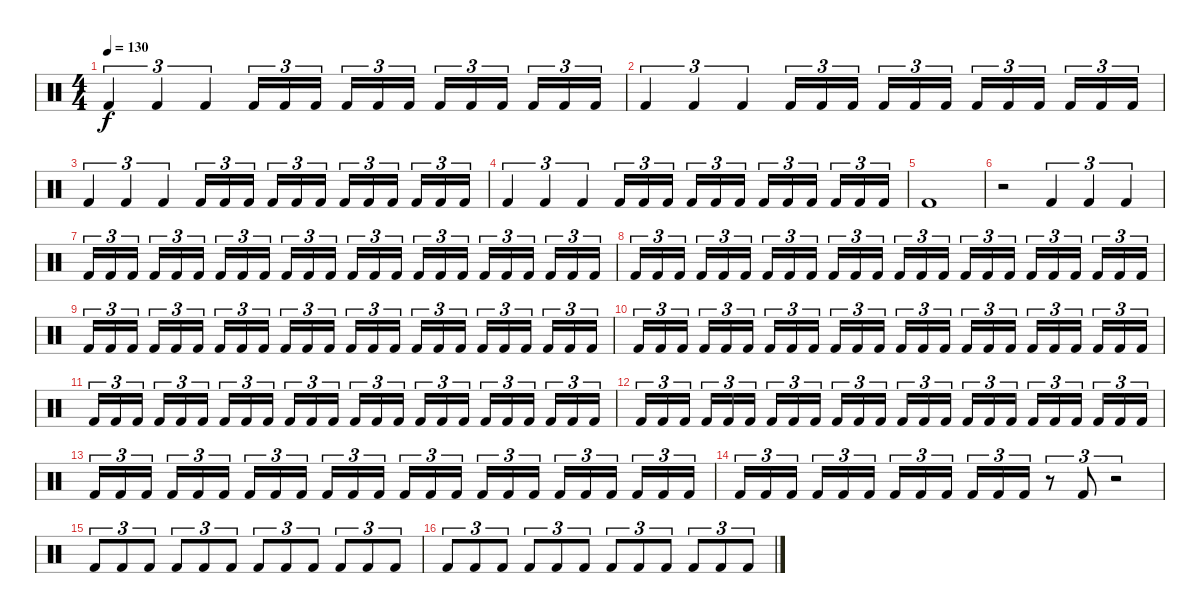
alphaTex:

\track "" {instrument percussion}
\staff {score}
\articulation defaults
\ts (4 4)
\tempo 130
\clef neutral
\ks c "Kick (hit) 2".4{tu (3 2) dy f} "Kick (hit) 2".4{tu (3 2)} "Kick (hit) 2".4{tu (3 2)} "Kick (hit) 2".16{tu (3 2)} "Kick (hit) 2".16{tu (3 2)} "Kick (hit) 2".16{tu (3 2)} "Kick (hit) 2".16{tu (3 2)} "Kick (hit) 2".16{tu (3 2)} "Kick (hit) 2".16{tu (3 2)} "Kick (hit) 2".16{tu (3 2)} "Kick (hit) 2".16{tu (3 2)} "Kick (hit) 2".16{tu (3 2)} "Kick (hit) 2".16{tu (3 2)} "Kick (hit) 2".16{tu (3 2)} "Kick (hit) 2".16{tu (3 2)}
|
"Kick (hit) 2".4{tu (3 2)} "Kick (hit) 2".4{tu (3 2)} "Kick (hit) 2".4{tu (3 2)} "Kick (hit) 2".16{tu (3 2)} "Kick (hit) 2".16{tu (3 2)} "Kick (hit) 2".16{tu (3 2)} "Kick (hit) 2".16{tu (3 2)} "Kick (hit) 2".16{tu (3 2)} "Kick (hit) 2".16{tu (3 2)} "Kick (hit) 2".16{tu (3 2)} "Kick (hit) 2".16{tu (3 2)} "Kick (hit) 2".16{tu (3 2)} "Kick (hit) 2".16{tu (3 2)} "Kick (hit) 2".16{tu (3 2)} "Kick (hit) 2".16{tu (3 2)} |
"Kick (hit) 2".4{tu (3 2)} "Kick (hit) 2".4{tu (3 2)} "Kick (hit) 2".4{tu (3 2)} "Kick (hit) 2".16{tu (3 2)} "Kick (hit) 2".16{tu (3 2)} "Kick (hit) 2".16{tu (3 2)} "Kick (hit) 2".16{tu (3 2)} "Kick (hit) 2".16{tu (3 2)} "Kick (hit) 2".16{tu (3 2)} "Kick (hit) 2".16{tu (3 2)} "Kick (hit) 2".16{tu (3 2)} "Kick (hit) 2".16{tu (3 2)} "Kick (hit) 2".16{tu (3 2)} "Kick (hit) 2".16{tu (3 2)} "Kick (hit) 2".16{tu (3 2)} |
"Kick (hit) 2".4{tu (3 2)} "Kick (hit) 2".4{tu (3 2)} "Kick (hit) 2".4{tu (3 2)} "Kick (hit) 2".16{tu (3 2)} "Kick (hit) 2".16{tu (3 2)} "Kick (hit) 2".16{tu (3 2)} "Kick (hit) 2".16{tu (3 2)} "Kick (hit) 2".16{tu (3 2)} "Kick (hit) 2".16{tu (3 2)} "Kick (hit) 2".16{tu (3 2)} "Kick (hit) 2".16{tu (3 2)} "Kick (hit) 2".16{tu (3 2)} "Kick (hit) 2".16{tu (3 2)} "Kick (hit) 2".16{tu (3 2)} "Kick (hit) 2".16{tu (3 2)} |
"Kick (hit) 2".1 |
r.2 "Kick (hit) 2".4{tu (3 2)} "Kick (hit) 2".4{tu (3 2)} "Kick (hit) 2".4{tu (3 2)} |
"Kick (hit) 2".16{tu (3 2)} "Kick (hit) 2".16{tu (3 2)} "Kick (hit) 2".16{tu (3 2)} "Kick (hit) 2".16{tu (3 2)} "Kick (hit) 2".16{tu (3 2)} "Kick (hit) 2".16{tu (3 2)} "Kick (hit) 2".16{tu (3 2)} "Kick (hit) 2".16{tu (3 2)} "Kick (hit) 2".16{tu (3 2)} "Kick (hit) 2".16{tu (3 2)} "Kick (hit) 2".16{tu (3 2)} "Kick (hit) 2".16{tu (3 2)} "Kick (hit) 2".16{tu (3 2)} "Kick (hit) 2".16{tu (3 2)} "Kick (hit) 2".16{tu (3 2)} "Kick (hit) 2".16{tu (3 2)} "Kick (hit) 2".16{tu (3 2)} "Kick (hit) 2".16{tu (3 2)} "Kick (hit) 2".16{tu (3 2)} "Kick (hit) 2".16{tu (3 2)} "Kick (hit) 2".16{tu (3 2)} "Kick (hit) 2".16{tu (3 2)} "Kick (hit) 2".16{tu (3 2)} "Kick (hit) 2".16{tu (3 2)} |
"Kick (hit) 2".16{tu (3 2)} "Kick (hit) 2".16{tu (3 2)} "Kick (hit) 2".16{tu (3 2)} "Kick (hit) 2".16{tu (3 2)} "Kick (hit) 2".16{tu (3 2)} "Kick (hit) 2".16{tu (3 2)} "Kick (hit) 2".16{tu (3 2)} "Kick (hit) 2".16{tu (3 2)} "Kick (hit) 2".16{tu (3 2)} "Kick (hit) 2".16{tu (3 2)} "Kick (hit) 2".16{tu (3 2)} "Kick (hit) 2".16{tu (3 2)} "Kick (hit) 2".16{tu (3 2)} "Kick (hit) 2".16{tu (3 2)} "Kick (hit) 2".16{tu (3 2)} "Kick (hit) 2".16{tu (3 2)} "Kick (hit) 2".16{tu (3 2)} "Kick (hit) 2".16{tu (3 2)} "Kick (hit) 2".16{tu (3 2)} "Kick (hit) 2".16{tu (3 2)} "Kick (hit) 2".16{tu (3 2)} "Kick (hit) 2".16{tu (3 2)} "Kick (hit) 2".16{tu (3 2)} "Kick (hit) 2".16{tu (3 2)} |
"Kick (hit) 2".16{tu (3 2)} "Kick (hit) 2".16{tu (3 2)} "Kick (hit) 2".16{tu (3 2)} "Kick (hit) 2".16{tu (3 2)} "Kick (hit) 2".16{tu (3 2)} "Kick (hit) 2".16{tu (3 2)} "Kick (hit) 2".16{tu (3 2)} "Kick (hit) 2".16{tu (3 2)} "Kick (hit) 2".16{tu (3 2)} "Kick (hit) 2".16{tu (3 2)} "Kick (hit) 2".16{tu (3 2)} "Kick (hit) 2".16{tu (3 2)} "Kick (hit) 2".16{tu (3 2)} "Kick (hit) 2".16{tu (3 2)} "Kick (hit) 2".16{tu (3 2)} "Kick (hit) 2".16{tu (3 2)} "Kick (hit) 2".16{tu (3 2)} "Kick (hit) 2".16{tu (3 2)} "Kick (hit) 2".16{tu (3 2)} "Kick (hit) 2".16{tu (3 2)} "Kick (hit) 2".16{tu (3 2)} "Kick (hit) 2".16{tu (3 2)} "Kick (hit) 2".16{tu (3 2)} "Kick (hit) 2".16{tu (3 2)} |
"Kick (hit) 2".16{tu (3 2)} "Kick (hit) 2".16{tu (3 2)} "Kick (hit) 2".16{tu (3 2)} "Kick (hit) 2".16{tu (3 2)} "Kick (hit) 2".16{tu (3 2)} "Kick (hit) 2".16{tu (3 2)} "Kick (hit) 2".16{tu (3 2)} "Kick (hit) 2".16{tu (3 2)} "Kick (hit) 2".16{tu (3 2)} "Kick (hit) 2".16{tu (3 2)} "Kick (hit) 2".16{tu (3 2)} "Kick (hit) 2".16{tu (3 2)} "Kick (hit) 2".16{tu (3 2)} "Kick (hit) 2".16{tu (3 2)} "Kick (hit) 2".16{tu (3 2)} "Kick (hit) 2".16{tu (3 2)} "Kick (hit) 2".16{tu (3 2)} "Kick (hit) 2".16{tu (3 2)} "Kick (hit) 2".16{tu (3 2)} "Kick (hit) 2".16{tu (3 2)} "Kick (hit) 2".16{tu (3 2)} "Kick (hit) 2".16{tu (3 2)} "Kick (hit) 2".16{tu (3 2)} "Kick (hit) 2".16{tu (3 2)} |
"Kick (hit) 2".16{tu (3 2)} "Kick (hit) 2".16{tu (3 2)} "Kick (hit) 2".16{tu (3 2)} "Kick (hit) 2".16{tu (3 2)} "Kick (hit) 2".16{tu (3 2)} "Kick (hit) 2".16{tu (3 2)} "Kick (hit) 2".16{tu (3 2)} "Kick (hit) 2".16{tu (3 2)} "Kick (hit) 2".16{tu (3 2)} "Kick (hit) 2".16{tu (3 2)} "Kick (hit) 2".16{tu (3 2)} "Kick (hit) 2".16{tu (3 2)} "Kick (hit) 2".16{tu (3 2)} "Kick (hit) 2".16{tu (3 2)} "Kick (hit) 2".16{tu (3 2)} "Kick (hit) 2".16{tu (3 2)} "Kick (hit) 2".16{tu (3 2)} "Kick (hit) 2".16{tu (3 2)} "Kick (hit) 2".16{tu (3 2)} "Kick (hit) 2".16{tu (3 2)} "Kick (hit) 2".16{tu (3 2)} "Kick (hit) 2".16{tu (3 2)} "Kick (hit) 2".16{tu (3 2)} "Kick (hit) 2".16{tu (3 2)} |
"Kick (hit) 2".16{tu (3 2)} "Kick (hit) 2".16{tu (3 2)} "Kick (hit) 2".16{tu (3 2)} "Kick (hit) 2".16{tu (3 2)} "Kick (hit) 2".16{tu (3 2)} "Kick (hit) 2".16{tu (3 2)} "Kick (hit) 2".16{tu (3 2)} "Kick (hit) 2".16{tu (3 2)} "Kick (hit) 2".16{tu (3 2)} "Kick (hit) 2".16{tu (3 2)} "Kick (hit) 2".16{tu (3 2)} "Kick (hit) 2".16{tu (3 2)} "Kick (hit) 2".16{tu (3 2)} "Kick (hit) 2".16{tu (3 2)} "Kick (hit) 2".16{tu (3 2)} "Kick (hit) 2".16{tu (3 2)} "Kick (hit) 2".16{tu (3 2)} "Kick (hit) 2".16{tu (3 2)} "Kick (hit) 2".16{tu (3 2)} "Kick (hit) 2".16{tu (3 2)} "Kick (hit) 2".16{tu (3 2)} "Kick (hit) 2".16{tu (3 2)} "Kick (hit) 2".16{tu (3 2)} "Kick (hit) 2".16{tu (3 2)} |
"Kick (hit) 2".16{tu (3 2)} "Kick (hit) 2".16{tu (3 2)} "Kick (hit) 2".16{tu (3 2)} "Kick (hit) 2".16{tu (3 2)} "Kick (hit) 2".16{tu (3 2)} "Kick (hit) 2".16{tu (3 2)} "Kick (hit) 2".16{tu (3 2)} "Kick (hit) 2".16{tu (3 2)} "Kick (hit) 2".16{tu (3 2)} "Kick (hit) 2".16{tu (3 2)} "Kick (hit) 2".16{tu (3 2)} "Kick (hit) 2".16{tu (3 2)} "Kick (hit) 2".16{tu (3 2)} "Kick (hit) 2".16{tu (3 2)} "Kick (hit) 2".16{tu (3 2)} "Kick (hit) 2".16{tu (3 2)} "Kick (hit) 2".16{tu (3 2)} "Kick (hit) 2".16{tu (3 2)} "Kick (hit) 2".16{tu (3 2)} "Kick (hit) 2".16{tu (3 2)} "Kick (hit) 2".16{tu (3 2)} "Kick (hit) 2".16{tu (3 2)} "Kick (hit) 2".16{tu (3 2)} "Kick (hit) 2".16{tu (3 2)} |
"Kick (hit) 2".16{tu (3 2)} "Kick (hit) 2".16{tu (3 2)} "Kick (hit) 2".16{tu (3 2)} "Kick (hit) 2".16{tu (3 2)} "Kick (hit) 2".16{tu (3 2)} "Kick (hit) 2".16{tu (3 2)} "Kick (hit) 2".16{tu (3 2)} "Kick (hit) 2".16{tu (3 2)} "Kick (hit) 2".16{tu (3 2)} "Kick (hit) 2".16{tu (3 2)} "Kick (hit) 2".16{tu (3 2)} "Kick (hit) 2".16{tu (3 2)} r.8{tu (3 2)} "Kick (hit) 2".8{tu (3 2)} r.2{tu (3 2)} |
"Kick (hit) 2".8{tu (3 2)} "Kick (hit) 2".8{tu (3 2)} "Kick (hit) 2".8{tu (3 2)} "Kick (hit) 2".8{tu (3 2)} "Kick (hit) 2".8{tu (3 2)} "Kick (hit) 2".8{tu (3 2)} "Kick (hit) 2".8{tu (3 2)} "Kick (hit) 2".8{tu (3 2)} "Kick (hit) 2".8{tu (3 2)} "Kick (hit) 2".8{tu (3 2)} "Kick (hit) 2".8{tu (3 2)} "Kick (hit) 2".8{tu (3 2)} |
"Kick (hit) 2".8{tu (3 2)} "Kick (hit) 2".8{tu (3 2)} "Kick (hit) 2".8{tu (3 2)} "Kick (hit) 2".8{tu (3 2)} "Kick (hit) 2".8{tu (3 2)} "Kick (hit) 2".8{tu (3 2)} "Kick (hit) 2".8{tu (3 2)} "Kick (hit) 2".8{tu (3 2)} "Kick (hit) 2".8{tu (3 2)} "Kick (hit) 2".8{tu (3 2)} "Kick (hit) 2".8{tu (3 2)} "Kick (hit) 2".8{tu (3 2)}
